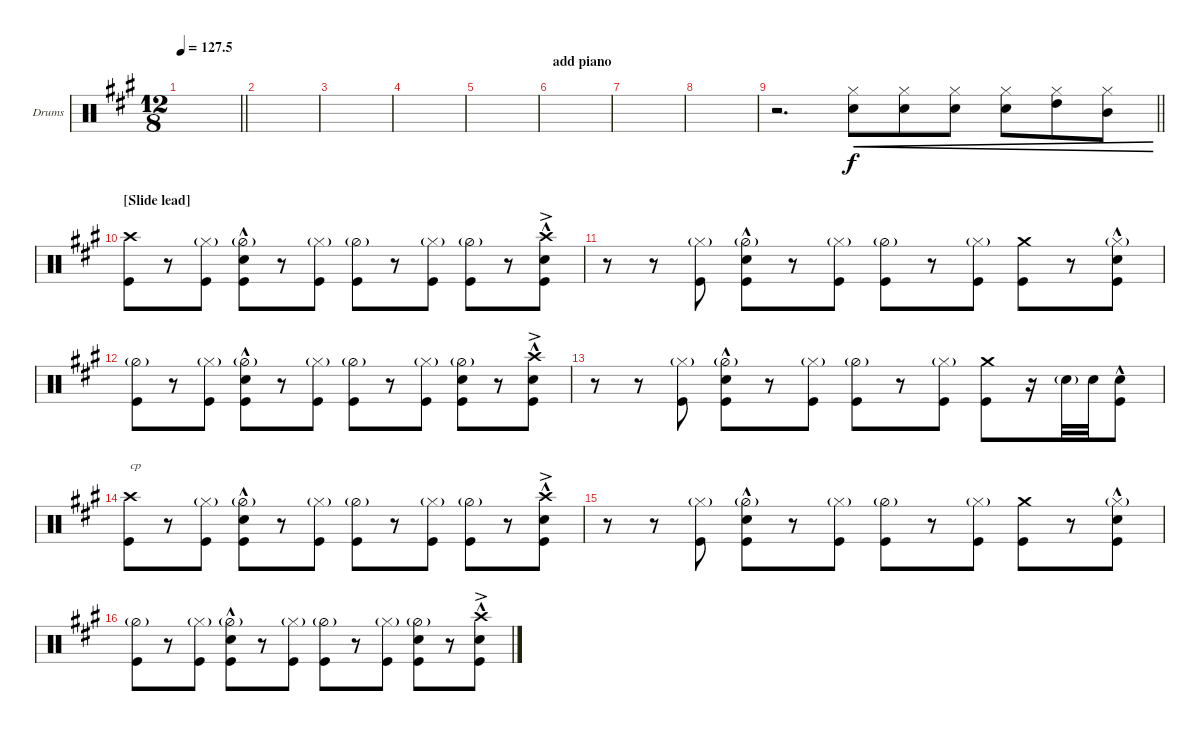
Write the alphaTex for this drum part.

\bracketExtendMode groupsimilarinstruments
\firstSystemTrackNameOrientation horizontal
\otherSystemsTrackNameOrientation horizontal
\track ("Drumkit" "Drums") {instrument percussion}
\staff {score}
\articulation defaults
\ts (12 8)
\beaming (8 3 3 3 3)
\tempo
127.5
\accidentals auto
\clef neutral
\ottava regular
\simile none
\scale
0.526971
\barLineRight lightlight
\ks a
|
\scale
0.236515 |
\scale
0.236515 |
\scale
0.333333 |
\scale
0.333333 |
\section ("" "add piano")
\scale
0.333333 |
\scale
0.333333 |
\scale
0.333333 |
\scale
0.333333
\barLineRight lightlight
r.2{d} ("Hi-Hat (closed)" "Snare (hit) 2").8{cre} ("Hi-Hat (closed)" "Snare (hit) 2").8{cre} ("Hi-Hat (closed)" "Snare (hit) 2").8{cre} ("Hi-Hat (closed)" "Snare (hit) 2").8{cre} ("Hi-Hat (closed)" "High Tom (hit)").8{cre} ("Hi-Hat (closed)" "Mid Tom (hit)").8{cre} |
\section ("" "[Slide lead]")
\scale
0.333333 ("Kick (hit)" "Crash high (hit)").8 r.8 ("Kick (hit)" "Hi-Hat (closed)"{g}).8 ("Kick (hit)" "Hi-Hat (half)"{g} "Snare (hit) 2"{hac}).8 r.8 ("Kick (hit)" "Hi-Hat (closed)"{g}).8 ("Kick (hit)" "Hi-Hat (half)"{g}).8 r.8 ("Kick (hit)" "Hi-Hat (closed)"{g}).8 ("Kick (hit)" "Hi-Hat (half)"{g}).8 r.8 ("Kick (hit)" "Snare (hit) 2"{hac} "Crash high (hit)"{ac}).8 |
\scale
0.333333 r.8 r.8 ("Kick (hit)" "Hi-Hat (closed)"{g}).8 ("Kick (hit)" "Hi-Hat (half)"{g} "Snare (hit) 2"{hac}).8 r.8 ("Kick (hit)" "Hi-Hat (closed)"{g}).8 ("Kick (hit)" "Hi-Hat (half)"{g}).8 r.8 ("Kick (hit)" "Hi-Hat (closed)"{g}).8 ("Kick (hit)" "Crash medium (hit)").8 r.8 ("Kick (hit)" "Hi-Hat (closed)"{g} "Snare (hit) 2"{hac}).8 |
\scale
0.333333 ("Kick (hit)" "Hi-Hat (half)"{g}).8 r.8 ("Kick (hit)" "Hi-Hat (closed)"{g}).8 ("Kick (hit)" "Hi-Hat (half)"{g} "Snare (hit) 2"{hac}).8 r.8 ("Kick (hit)" "Hi-Hat (closed)"{g}).8 ("Kick (hit)" "Hi-Hat (half)"{g}).8 r.8 ("Kick (hit)" "Hi-Hat (closed)"{g}).8 ("Kick (hit)" "Hi-Hat (half)"{g} "Snare (hit) 2").8 r.8 ("Kick (hit)" "Snare (hit) 2"{hac} "Crash high (hit)"{ac}).8 |
\scale
0.333333 r.8 r.8 ("Kick (hit)" "Hi-Hat (closed)"{g}).8 ("Kick (hit)" "Hi-Hat (half)"{g} "Snare (hit) 2"{hac}).8 r.8 ("Kick (hit)" "Hi-Hat (closed)"{g}).8 ("Kick (hit)" "Hi-Hat (half)"{g}).8 r.8 ("Kick (hit)" "Hi-Hat (closed)"{g}).8 ("Kick (hit)" "Crash medium (hit)").8 r.16 "Snare (hit) 2"{g}.32 "Snare (hit) 2".32 ("Kick (hit)" "Snare (hit) 2"{hac}).8 |
\scale
0.333333 ("Kick (hit)" "Crash high (hit)").8{txt "cp"} r.8 ("Kick (hit)" "Hi-Hat (closed)"{g}).8 ("Kick (hit)" "Hi-Hat (half)"{g} "Snare (hit) 2"{hac}).8 r.8 ("Kick (hit)" "Hi-Hat (closed)"{g}).8 ("Kick (hit)" "Hi-Hat (half)"{g}).8 r.8 ("Kick (hit)" "Hi-Hat (closed)"{g}).8 ("Kick (hit)" "Hi-Hat (half)"{g}).8 r.8 ("Kick (hit)" "Snare (hit) 2"{hac} "Crash high (hit)"{ac}).8 |
\scale
0.333333 r.8 r.8 ("Kick (hit)" "Hi-Hat (closed)"{g}).8 ("Kick (hit)" "Hi-Hat (half)"{g} "Snare (hit) 2"{hac}).8 r.8 ("Kick (hit)" "Hi-Hat (closed)"{g}).8 ("Kick (hit)" "Hi-Hat (half)"{g}).8 r.8 ("Kick (hit)" "Hi-Hat (closed)"{g}).8 ("Kick (hit)" "Crash medium (hit)").8 r.8 ("Kick (hit)" "Hi-Hat (closed)"{g} "Snare (hit) 2"{hac}).8 |
\scale
0.333333 ("Kick (hit)" "Hi-Hat (half)"{g}).8 r.8 ("Kick (hit)" "Hi-Hat (closed)"{g}).8 ("Kick (hit)" "Hi-Hat (half)"{g} "Snare (hit) 2"{hac}).8 r.8 ("Kick (hit)" "Hi-Hat (closed)"{g}).8 ("Kick (hit)" "Hi-Hat (half)"{g}).8 r.8 ("Kick (hit)" "Hi-Hat (closed)"{g}).8 ("Kick (hit)" "Hi-Hat (half)"{g} "Snare (hit) 2").8 r.8 ("Kick (hit)" "Snare (hit) 2"{hac} "Crash high (hit)"{ac}).8
